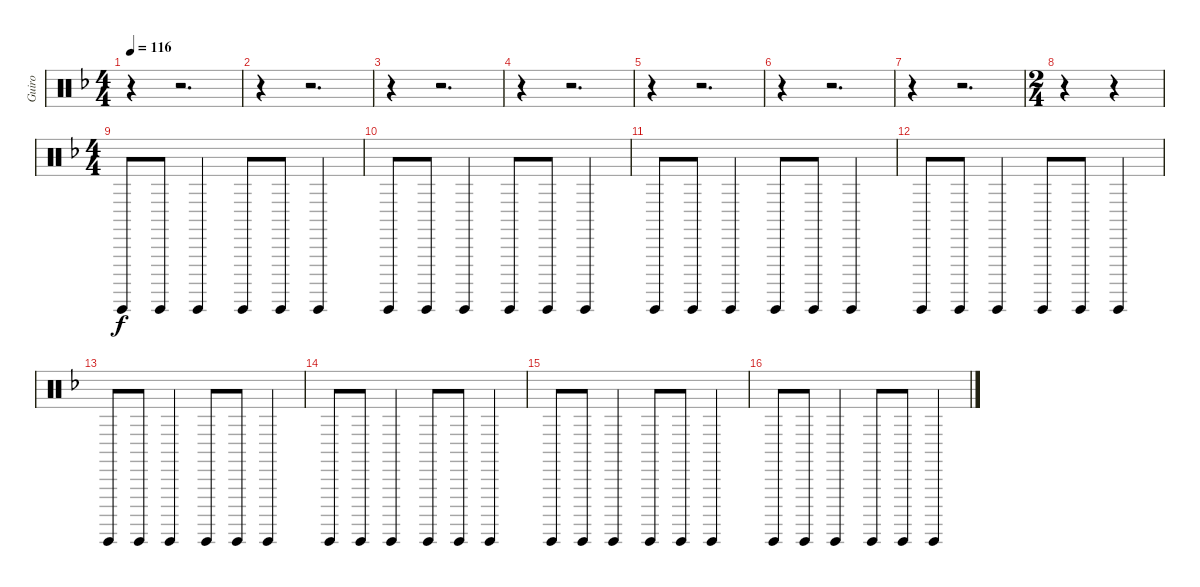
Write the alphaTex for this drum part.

\track ("Guiro" "Guiro") {instrument percussion}
\staff {score}
\articulation defaults
\ts (4 4)
\tempo 116
\clef neutral
\ks dminor
r.4{dy f} r.2{d} |
r.4 r.2{d} |
r.4 r.2{d} |
r.4 r.2{d} |
r.4 r.2{d} |
r.4 r.2{d} |
r.4 r.2{d} |
\ts (2 4)
r.4 r.4 |
\ts (4 4)
"Guiro (hit)".8 "Guiro (hit)".8 "Guiro (hit)".4 "Guiro (hit)".8 "Guiro (hit)".8 "Guiro (hit)".4 |
"Guiro (hit)".8 "Guiro (hit)".8 "Guiro (hit)".4 "Guiro (hit)".8 "Guiro (hit)".8 "Guiro (hit)".4 |
"Guiro (hit)".8 "Guiro (hit)".8 "Guiro (hit)".4 "Guiro (hit)".8 "Guiro (hit)".8 "Guiro (hit)".4 |
"Guiro (hit)".8 "Guiro (hit)".8 "Guiro (hit)".4 "Guiro (hit)".8 "Guiro (hit)".8 "Guiro (hit)".4 |
"Guiro (hit)".8 "Guiro (hit)".8 "Guiro (hit)".4 "Guiro (hit)".8 "Guiro (hit)".8 "Guiro (hit)".4 |
"Guiro (hit)".8 "Guiro (hit)".8 "Guiro (hit)".4 "Guiro (hit)".8 "Guiro (hit)".8 "Guiro (hit)".4 |
"Guiro (hit)".8 "Guiro (hit)".8 "Guiro (hit)".4 "Guiro (hit)".8 "Guiro (hit)".8 "Guiro (hit)".4 |
"Guiro (hit)".8 "Guiro (hit)".8 "Guiro (hit)".4 "Guiro (hit)".8 "Guiro (hit)".8 "Guiro (hit)".4
